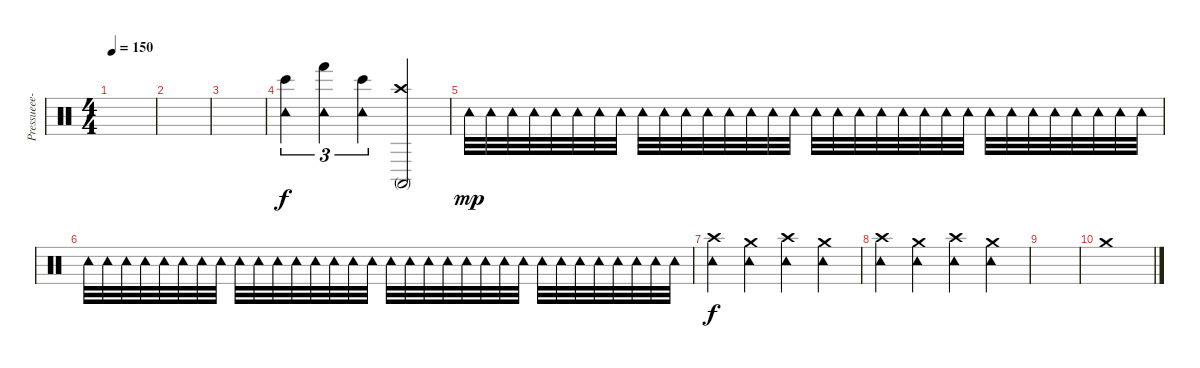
\track ("" "Pressueee-") {instrument percussion}
\staff {score}
\articulation defaults
\ts (4 4)
\tempo 150
\clef neutral
\ks c
|
|
|
("Tambourine (hit)" "Bongo High (hit)").4{tu (3 2)} ("Tambourine (hit)" "Hand (hit)").4{tu (3 2)} ("Tambourine (hit)" "Bongo High (hit)").4{tu (3 2)} ("Crash high (hit)" "Conga high (mute)").2 |
"Tambourine (hit)".32{dy mp} "Tambourine (hit)".32 "Tambourine (hit)".32 "Tambourine (hit)".32 "Tambourine (hit)".32 "Tambourine (hit)".32 "Tambourine (hit)".32 "Tambourine (hit)".32 "Tambourine (hit)".32 "Tambourine (hit)".32 "Tambourine (hit)".32 "Tambourine (hit)".32 "Tambourine (hit)".32 "Tambourine (hit)".32 "Tambourine (hit)".32 "Tambourine (hit)".32 "Tambourine (hit)".32 "Tambourine (hit)".32 "Tambourine (hit)".32 "Tambourine (hit)".32 "Tambourine (hit)".32 "Tambourine (hit)".32 "Tambourine (hit)".32 "Tambourine (hit)".32 "Tambourine (hit)".32 "Tambourine (hit)".32 "Tambourine (hit)".32 "Tambourine (hit)".32 "Tambourine (hit)".32 "Tambourine (hit)".32 "Tambourine (hit)".32 "Tambourine (hit)".32 |
"Tambourine (hit)".32 "Tambourine (hit)".32 "Tambourine (hit)".32 "Tambourine (hit)".32 "Tambourine (hit)".32 "Tambourine (hit)".32 "Tambourine (hit)".32 "Tambourine (hit)".32 "Tambourine (hit)".32 "Tambourine (hit)".32 "Tambourine (hit)".32 "Tambourine (hit)".32 "Tambourine (hit)".32 "Tambourine (hit)".32 "Tambourine (hit)".32 "Tambourine (hit)".32 "Tambourine (hit)".32 "Tambourine (hit)".32 "Tambourine (hit)".32 "Tambourine (hit)".32 "Tambourine (hit)".32 "Tambourine (hit)".32 "Tambourine (hit)".32 "Tambourine (hit)".32 "Tambourine (hit)".32 "Tambourine (hit)".32 "Tambourine (hit)".32 "Tambourine (hit)".32 "Tambourine (hit)".32 "Tambourine (hit)".32 "Tambourine (hit)".32 "Tambourine (hit)".32 |
("Crash high (hit)" "Tambourine (hit)").4{dy f} ("Crash medium (hit)" "Tambourine (hit)").4 ("Crash high (hit)" "Tambourine (hit)").4 ("Crash medium (hit)" "Tambourine (hit)").4 |
("Crash high (hit)" "Tambourine (hit)").4 ("Crash medium (hit)" "Tambourine (hit)").4 ("Crash high (hit)" "Tambourine (hit)").4 ("Crash medium (hit)" "Tambourine (hit)").4 |
|
"Crash medium (hit)".1
